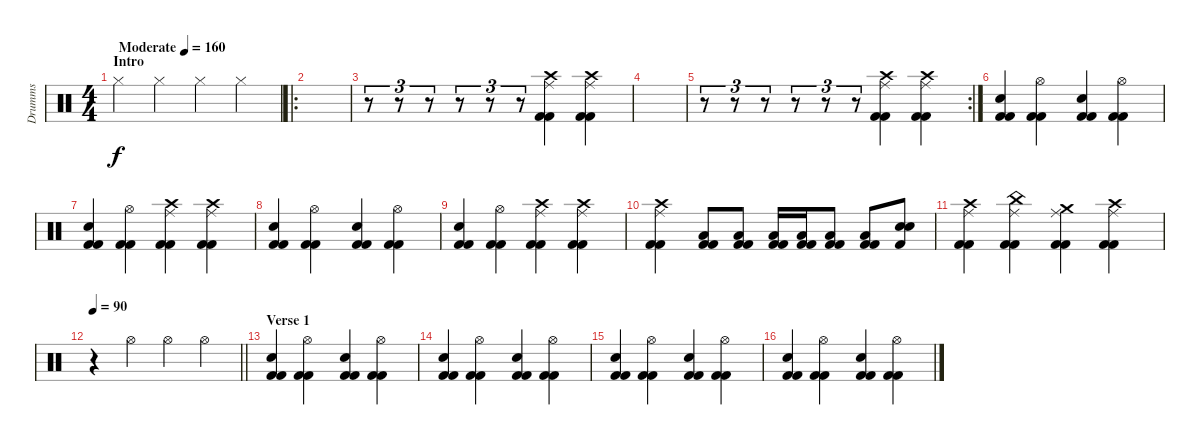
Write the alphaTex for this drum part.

\track ("Drumms" "Drumms") {instrument percussion}
\staff {score}
\articulation defaults
\ts (4 4)
\section ("" "Intro")
\tempo (160 "Moderate")
\clef neutral
\ks c "Hi-Hat (closed)".4{dy f} "Hi-Hat (closed)".4 "Hi-Hat (closed)".4 "Hi-Hat (closed)".4
|
\ro
|
r.8{tu (3 2)} r.8{tu (3 2)} r.8{tu (3 2)} r.8{tu (3 2)} r.8{tu (3 2)} r.8{tu (3 2)} ("Crash high (hit)" "Ride (middle)" "Kick (hit) 2" "Kick (hit) 2").4 ("Crash high (hit)" "Ride (middle)" "Kick (hit) 2" "Kick (hit) 2").4 |
|
\rc 2
r.8{tu (3 2)} r.8{tu (3 2)} r.8{tu (3 2)} r.8{tu (3 2)} r.8{tu (3 2)} r.8{tu (3 2)} ("Crash high (hit)" "Ride (middle)" "Kick (hit) 2" "Kick (hit) 2").4 ("Crash high (hit)" "Ride (middle)" "Kick (hit) 2" "Kick (hit) 2").4 |
("Kick (hit) 2" "Snare (hit) 2" "Kick (hit) 2").4 ("Kick (hit) 2" "Hi-Hat (open)" "Kick (hit) 2").4 ("Kick (hit) 2" "Snare (hit) 2" "Kick (hit) 2").4 ("Kick (hit) 2" "Hi-Hat (open)" "Kick (hit) 2").4 |
("Kick (hit) 2" "Snare (hit) 2" "Kick (hit) 2").4 ("Kick (hit) 2" "Hi-Hat (open)" "Kick (hit) 2").4 ("Crash high (hit)" "Ride (middle)" "Kick (hit) 2" "Kick (hit) 2").4 ("Crash high (hit)" "Ride (middle)" "Kick (hit) 2" "Kick (hit) 2").4 |
("Kick (hit) 2" "Snare (hit) 2" "Kick (hit) 2").4 ("Kick (hit) 2" "Hi-Hat (open)" "Kick (hit) 2").4 ("Kick (hit) 2" "Snare (hit) 2" "Kick (hit) 2").4 ("Kick (hit) 2" "Hi-Hat (open)" "Kick (hit) 2").4 |
("Kick (hit) 2" "Snare (hit) 2" "Kick (hit) 2").4 ("Kick (hit) 2" "Hi-Hat (open)" "Kick (hit) 2").4 ("Crash high (hit)" "Ride (middle)" "Kick (hit) 2" "Kick (hit) 2").4 ("Crash high (hit)" "Ride (middle)" "Kick (hit) 2" "Kick (hit) 2").4 |
("Crash high (hit)" "Ride (middle)" "Kick (hit) 2" "Kick (hit) 2").4 ("Low Floor Tom (hit)" "Kick (hit) 2" "Kick (hit) 2").8 ("Low Floor Tom (hit)" "Kick (hit) 2" "Kick (hit) 2").8 ("Low Floor Tom (hit)" "Kick (hit) 2" "Kick (hit) 2").16 ("Low Floor Tom (hit)" "Kick (hit) 2" "Kick (hit) 2").16 ("Low Floor Tom (hit)" "Kick (hit) 2" "Kick (hit) 2").8 ("Low Floor Tom (hit)" "Kick (hit) 2" "Kick (hit) 2").8 ("Snare (hit) 2" "Snare (hit) 2" "Kick (hit) 2").8 |
("Crash high (hit)" "Ride (middle)" "Kick (hit) 2" "Kick (hit) 2").4 ("China (hit)" "Ride (middle)" "Kick (hit) 2" "Kick (hit) 2").4 ("Crash medium (hit)" "Ride (middle)" "Kick (hit) 2" "Kick (hit) 2").4 ("Crash high (hit)" "Ride (middle)" "Kick (hit) 2" "Kick (hit) 2").4 |
\tempo 90
\barLineRight lightlight
r.4 "Hi-Hat (open)".4 "Hi-Hat (open)".4 "Hi-Hat (open)".4 |
\section ("" "Verse 1")
("Kick (hit) 2" "Snare (hit) 2" "Kick (hit) 2").4 ("Kick (hit) 2" "Hi-Hat (open)" "Kick (hit) 2").4 ("Kick (hit) 2" "Snare (hit) 2" "Kick (hit) 2").4 ("Kick (hit) 2" "Hi-Hat (open)" "Kick (hit) 2").4 |
("Kick (hit) 2" "Snare (hit) 2" "Kick (hit) 2").4 ("Kick (hit) 2" "Hi-Hat (open)" "Kick (hit) 2").4 ("Kick (hit) 2" "Snare (hit) 2" "Kick (hit) 2").4 ("Kick (hit) 2" "Hi-Hat (open)" "Kick (hit) 2").4 |
("Kick (hit) 2" "Snare (hit) 2" "Kick (hit) 2").4 ("Kick (hit) 2" "Hi-Hat (open)" "Kick (hit) 2").4 ("Kick (hit) 2" "Snare (hit) 2" "Kick (hit) 2").4 ("Kick (hit) 2" "Hi-Hat (open)" "Kick (hit) 2").4 |
("Kick (hit) 2" "Snare (hit) 2" "Kick (hit) 2").4 ("Kick (hit) 2" "Hi-Hat (open)" "Kick (hit) 2").4 ("Kick (hit) 2" "Snare (hit) 2" "Kick (hit) 2").4 ("Kick (hit) 2" "Hi-Hat (open)" "Kick (hit) 2").4
